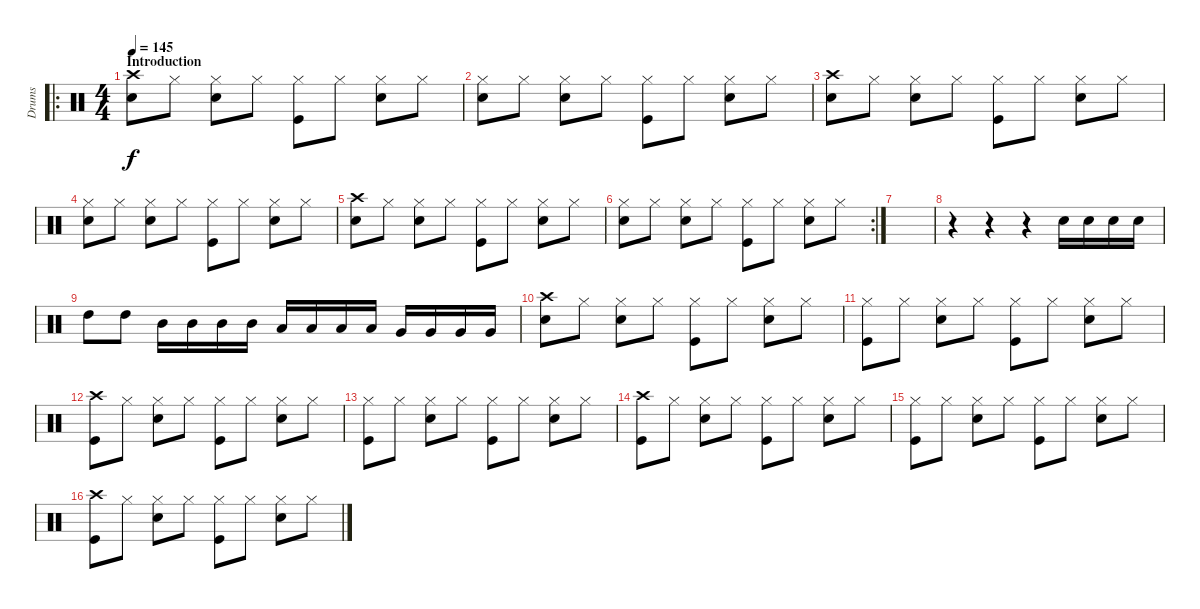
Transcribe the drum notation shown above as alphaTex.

\track ("Drums" "Drums") {instrument percussion}
\staff {score}
\articulation defaults
\ro
\ts (4 4)
\section ("" "Introduction")
\tempo 145
\clef neutral
\ks c
("Crash high (hit)" "Snare (hit) 2").8{dy f} "Hi-Hat (closed)".8 ("Hi-Hat (closed)" "Snare (hit) 2").8 "Hi-Hat (closed)".8 ("Hi-Hat (closed)" "Kick (hit)").8 "Hi-Hat (closed)".8 ("Hi-Hat (closed)" "Snare (hit) 2").8 "Hi-Hat (closed)".8 |
("Hi-Hat (closed)" "Snare (hit) 2").8 "Hi-Hat (closed)".8 ("Hi-Hat (closed)" "Snare (hit) 2").8 "Hi-Hat (closed)".8 ("Hi-Hat (closed)" "Kick (hit)").8 "Hi-Hat (closed)".8 ("Hi-Hat (closed)" "Snare (hit) 2").8 "Hi-Hat (closed)".8 |
("Crash high (hit)" "Snare (hit) 2").8 "Hi-Hat (closed)".8 ("Hi-Hat (closed)" "Snare (hit) 2").8 "Hi-Hat (closed)".8 ("Hi-Hat (closed)" "Kick (hit)").8 "Hi-Hat (closed)".8 ("Hi-Hat (closed)" "Snare (hit) 2").8 "Hi-Hat (closed)".8 |
("Hi-Hat (closed)" "Snare (hit) 2").8 "Hi-Hat (closed)".8 ("Hi-Hat (closed)" "Snare (hit) 2").8 "Hi-Hat (closed)".8 ("Hi-Hat (closed)" "Kick (hit)").8 "Hi-Hat (closed)".8 ("Hi-Hat (closed)" "Snare (hit) 2").8 "Hi-Hat (closed)".8 |
("Crash high (hit)" "Snare (hit) 2").8 "Hi-Hat (closed)".8 ("Hi-Hat (closed)" "Snare (hit) 2").8 "Hi-Hat (closed)".8 ("Hi-Hat (closed)" "Kick (hit)").8 "Hi-Hat (closed)".8 ("Hi-Hat (closed)" "Snare (hit) 2").8 "Hi-Hat (closed)".8 |
\rc 2
("Hi-Hat (closed)" "Snare (hit) 2").8 "Hi-Hat (closed)".8 ("Hi-Hat (closed)" "Snare (hit) 2").8 "Hi-Hat (closed)".8 ("Hi-Hat (closed)" "Kick (hit)").8 "Hi-Hat (closed)".8 ("Hi-Hat (closed)" "Snare (hit) 2").8 "Hi-Hat (closed)".8 |
|
r.4 r.4 r.4 "Snare (hit) 2".16 "Snare (hit) 2".16 "Snare (hit) 2".16 "Snare (hit) 2".16 |
"High Tom (hit)".8 "High Tom (hit)".8 "Mid Tom (hit)".16 "Mid Tom (hit)".16 "Mid Tom (hit)".16 "Mid Tom (hit)".16 "Low Tom (hit)".16 "Low Tom (hit)".16 "Low Tom (hit)".16 "Low Tom (hit)".16 "Very Low Tom (hit)".16 "Very Low Tom (hit)".16 "Very Low Tom (hit)".16 "Very Low Tom (hit)".16 |
("Crash high (hit)" "Snare (hit) 2").8 "Hi-Hat (closed)".8 ("Hi-Hat (closed)" "Snare (hit) 2").8 "Hi-Hat (closed)".8 ("Hi-Hat (closed)" "Kick (hit)").8 "Hi-Hat (closed)".8 ("Hi-Hat (closed)" "Snare (hit) 2").8 "Hi-Hat (closed)".8 |
("Hi-Hat (closed)" "Kick (hit)").8 "Hi-Hat (closed)".8 ("Hi-Hat (closed)" "Snare (hit) 2").8 "Hi-Hat (closed)".8 ("Hi-Hat (closed)" "Kick (hit)").8 "Hi-Hat (closed)".8 ("Hi-Hat (closed)" "Snare (hit) 2").8 "Hi-Hat (closed)".8 |
("Crash high (hit)" "Kick (hit)").8 "Hi-Hat (closed)".8 ("Hi-Hat (closed)" "Snare (hit) 2").8 "Hi-Hat (closed)".8 ("Hi-Hat (closed)" "Kick (hit)").8 "Hi-Hat (closed)".8 ("Hi-Hat (closed)" "Snare (hit) 2").8 "Hi-Hat (closed)".8 |
("Hi-Hat (closed)" "Kick (hit)").8 "Hi-Hat (closed)".8 ("Hi-Hat (closed)" "Snare (hit) 2").8 "Hi-Hat (closed)".8 ("Hi-Hat (closed)" "Kick (hit)").8 "Hi-Hat (closed)".8 ("Hi-Hat (closed)" "Snare (hit) 2").8 "Hi-Hat (closed)".8 |
("Crash high (hit)" "Kick (hit)").8 "Hi-Hat (closed)".8 ("Hi-Hat (closed)" "Snare (hit) 2").8 "Hi-Hat (closed)".8 ("Hi-Hat (closed)" "Kick (hit)").8 "Hi-Hat (closed)".8 ("Hi-Hat (closed)" "Snare (hit) 2").8 "Hi-Hat (closed)".8 |
("Hi-Hat (closed)" "Kick (hit)").8 "Hi-Hat (closed)".8 ("Hi-Hat (closed)" "Snare (hit) 2").8 "Hi-Hat (closed)".8 ("Hi-Hat (closed)" "Kick (hit)").8 "Hi-Hat (closed)".8 ("Hi-Hat (closed)" "Snare (hit) 2").8 "Hi-Hat (closed)".8 |
("Crash high (hit)" "Kick (hit)").8 "Hi-Hat (closed)".8 ("Hi-Hat (closed)" "Snare (hit) 2").8 "Hi-Hat (closed)".8 ("Hi-Hat (closed)" "Kick (hit)").8 "Hi-Hat (closed)".8 ("Hi-Hat (closed)" "Snare (hit) 2").8 "Hi-Hat (closed)".8
